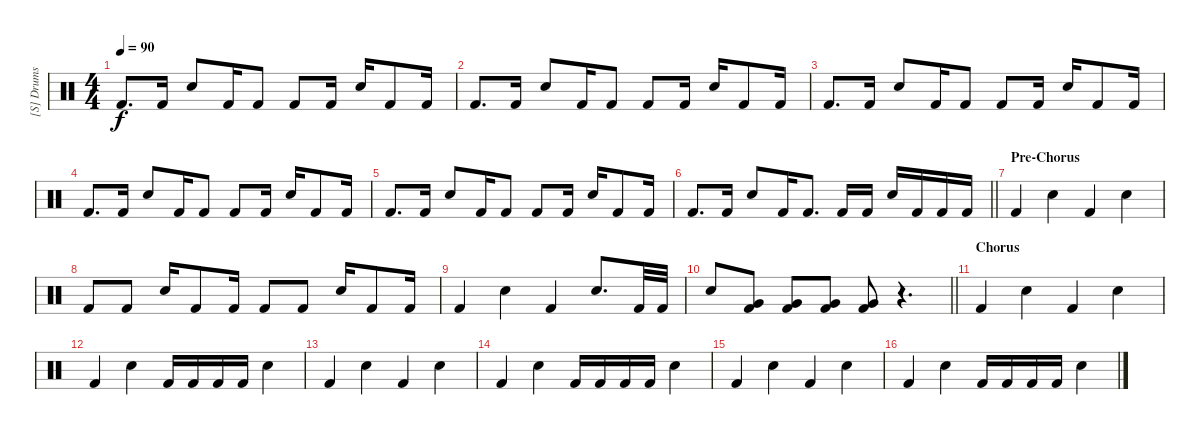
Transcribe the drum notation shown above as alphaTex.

\track ("[S] Drums I (Stewart)" "[S] Drums ") {instrument percussion}
\staff {score}
\articulation defaults
\ts (4 4)
\tempo 90
\clef neutral
\ks c "Kick (hit) 2".8{d dy f} "Kick (hit) 2".16 "Snare (hit) 2".8 "Kick (hit) 2".16 "Kick (hit) 2".8 "Kick (hit) 2".8 "Kick (hit) 2".16 "Snare (hit) 2".16 "Kick (hit) 2".8 "Kick (hit) 2".16
|
"Kick (hit) 2".8{d} "Kick (hit) 2".16 "Snare (hit) 2".8 "Kick (hit) 2".16 "Kick (hit) 2".8 "Kick (hit) 2".8 "Kick (hit) 2".16 "Snare (hit) 2".16 "Kick (hit) 2".8 "Kick (hit) 2".16 |
"Kick (hit) 2".8{d} "Kick (hit) 2".16 "Snare (hit) 2".8 "Kick (hit) 2".16 "Kick (hit) 2".8 "Kick (hit) 2".8 "Kick (hit) 2".16 "Snare (hit) 2".16 "Kick (hit) 2".8 "Kick (hit) 2".16 |
"Kick (hit) 2".8{d} "Kick (hit) 2".16 "Snare (hit) 2".8 "Kick (hit) 2".16 "Kick (hit) 2".8 "Kick (hit) 2".8 "Kick (hit) 2".16 "Snare (hit) 2".16 "Kick (hit) 2".8 "Kick (hit) 2".16 |
"Kick (hit) 2".8{d} "Kick (hit) 2".16 "Snare (hit) 2".8 "Kick (hit) 2".16 "Kick (hit) 2".8 "Kick (hit) 2".8 "Kick (hit) 2".16 "Snare (hit) 2".16 "Kick (hit) 2".8 "Kick (hit) 2".16 |
\barLineRight lightlight "Kick (hit) 2".8{d} "Kick (hit) 2".16 "Snare (hit) 2".8 "Kick (hit) 2".16 "Kick (hit) 2".8{d} "Kick (hit) 2".16 "Kick (hit) 2".16 "Snare (hit) 2".16 "Kick (hit) 2".16 "Kick (hit) 2".16 "Kick (hit) 2".16
|
\section ("" "Pre-Chorus")
"Kick (hit) 2".4 "Snare (hit) 2".4 "Kick (hit) 2".4 "Snare (hit) 2".4 |
"Kick (hit) 2".8 "Kick (hit) 2".8 "Snare (hit) 2".16 "Kick (hit) 2".8 "Kick (hit) 2".16 "Kick (hit) 2".8 "Kick (hit) 2".8 "Snare (hit) 2".16 "Kick (hit) 2".8 "Kick (hit) 2".16 |
"Kick (hit) 2".4 "Snare (hit) 2".4 "Kick (hit) 2".4 "Snare (hit) 2".8{d} "Kick (hit) 2".32 "Kick (hit) 2".32 |
\barLineRight lightlight "Snare (hit) 2".8
("Kick (hit) 2" "Very Low Tom (hit)").8 ("Kick (hit) 2" "Very Low Tom (hit)").8 ("Kick (hit) 2" "Very Low Tom (hit)").8 ("Kick (hit) 2" "Very Low Tom (hit)").8 r.4{d} |
\section ("" "Chorus")
"Kick (hit) 2".4 "Snare (hit) 2".4 "Kick (hit) 2".4 "Snare (hit) 2".4 |
"Kick (hit) 2".4 "Snare (hit) 2".4 "Kick (hit) 2".16 "Kick (hit) 2".16 "Kick (hit) 2".16 "Kick (hit) 2".16 "Snare (hit) 2".4 |
"Kick (hit) 2".4 "Snare (hit) 2".4 "Kick (hit) 2".4 "Snare (hit) 2".4 |
"Kick (hit) 2".4 "Snare (hit) 2".4 "Kick (hit) 2".16 "Kick (hit) 2".16 "Kick (hit) 2".16 "Kick (hit) 2".16 "Snare (hit) 2".4 |
"Kick (hit) 2".4 "Snare (hit) 2".4 "Kick (hit) 2".4 "Snare (hit) 2".4 |
"Kick (hit) 2".4 "Snare (hit) 2".4 "Kick (hit) 2".16 "Kick (hit) 2".16 "Kick (hit) 2".16 "Kick (hit) 2".16 "Snare (hit) 2".4
